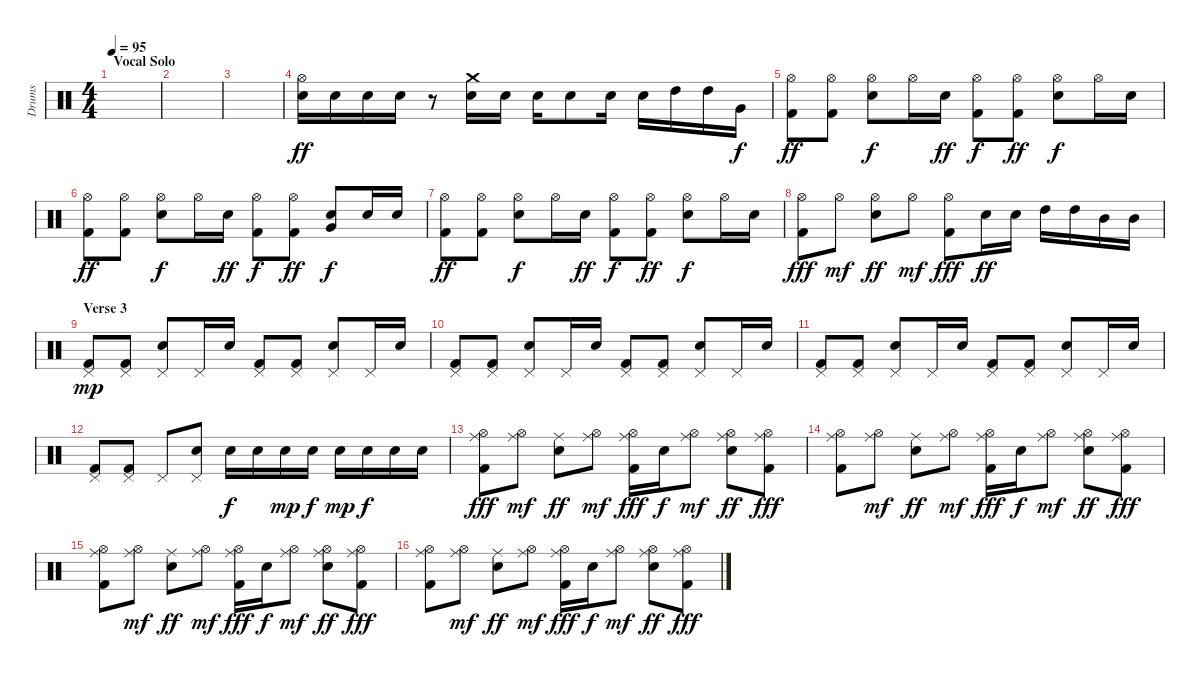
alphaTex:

\track ("Drums" "Drums") {instrument percussion}
\staff {score}
\articulation defaults
\ts (4 4)
\section ("" "Vocal Solo")
\tempo 95
\clef neutral
\ks c
|
|
|
("Hi-Hat (open)" "Electric Snare (hit)").16{dy ff} "Electric Snare (hit)".16 "Electric Snare (hit)".16 "Electric Snare (hit)".16 r.8 ("Crash medium (hit)" "Electric Snare (hit)").16 "Electric Snare (hit)".16 "Electric Snare (hit)".16 "Electric Snare (hit)".8 "Electric Snare (hit)".16 "Electric Snare (hit)".16 "High Tom (hit)".16 "High Tom (hit)".16 "Very Low Tom (hit)".16{dy f} |
("Hi-Hat (open)" "Kick (hit) 2").8{dy ff} ("Hi-Hat (open)" "Kick (hit) 2").8 ("Hi-Hat (open)" "Electric Snare (hit)").8{dy f} "Hi-Hat (open)".16 "Electric Snare (hit)".16{dy ff} ("Hi-Hat (open)" "Kick (hit) 2").8{dy f} ("Hi-Hat (open)" "Kick (hit) 2").8{dy ff} ("Hi-Hat (open)" "Electric Snare (hit)").8{dy f} "Hi-Hat (open)".16 "Electric Snare (hit)".16 |
("Hi-Hat (open)" "Kick (hit) 2").8{dy ff} ("Hi-Hat (open)" "Kick (hit) 2").8 ("Hi-Hat (open)" "Electric Snare (hit)").8{dy f} "Hi-Hat (open)".16 "Electric Snare (hit)".16{dy ff} ("Hi-Hat (open)" "Kick (hit) 2").8{dy f} ("Hi-Hat (open)" "Kick (hit) 2").8{dy ff} ("Electric Snare (hit)" "Very Low Tom (hit)").8{dy f} "Electric Snare (hit)".16 "Electric Snare (hit)".16 |
("Hi-Hat (open)" "Kick (hit) 2").8{dy ff} ("Hi-Hat (open)" "Kick (hit) 2").8 ("Hi-Hat (open)" "Electric Snare (hit)").8{dy f} "Hi-Hat (open)".16 "Electric Snare (hit)".16{dy ff} ("Hi-Hat (open)" "Kick (hit) 2").8{dy f} ("Hi-Hat (open)" "Kick (hit) 2").8{dy ff} ("Hi-Hat (open)" "Electric Snare (hit)").8{dy f} "Hi-Hat (open)".16 "Electric Snare (hit)".16 |
("Hi-Hat (open)" "Kick (hit) 2").8{dy fff} "Hi-Hat (open)".8{dy mf} ("Hi-Hat (open)" "Electric Snare (hit)").8{dy ff} "Hi-Hat (open)".8{dy mf} ("Hi-Hat (open)" "Kick (hit) 2").8{dy fff} "Electric Snare (hit)".16{dy ff} "Electric Snare (hit)".16 "High Tom (hit)".16 "High Tom (hit)".16 "Mid Tom (hit)".16 "Mid Tom (hit)".16 |
\section ("" "Verse 3")
("Pedal Hi-Hat (hit)" "Kick (hit) 2").8{dy mp} ("Pedal Hi-Hat (hit)" "Kick (hit) 2").8 ("Pedal Hi-Hat (hit)" "Electric Snare (hit)").8 "Pedal Hi-Hat (hit)".16 "Electric Snare (hit)".16 ("Pedal Hi-Hat (hit)" "Kick (hit) 2").8 ("Pedal Hi-Hat (hit)" "Kick (hit) 2").8 ("Pedal Hi-Hat (hit)" "Electric Snare (hit)").8 "Pedal Hi-Hat (hit)".16 "Electric Snare (hit)".16 |
("Pedal Hi-Hat (hit)" "Kick (hit) 2").8 ("Pedal Hi-Hat (hit)" "Kick (hit) 2").8 ("Pedal Hi-Hat (hit)" "Electric Snare (hit)").8 "Pedal Hi-Hat (hit)".16 "Electric Snare (hit)".16 ("Pedal Hi-Hat (hit)" "Kick (hit) 2").8 ("Pedal Hi-Hat (hit)" "Kick (hit) 2").8 ("Pedal Hi-Hat (hit)" "Electric Snare (hit)").8 "Pedal Hi-Hat (hit)".16 "Electric Snare (hit)".16 |
("Pedal Hi-Hat (hit)" "Kick (hit) 2").8 ("Pedal Hi-Hat (hit)" "Kick (hit) 2").8 ("Pedal Hi-Hat (hit)" "Electric Snare (hit)").8 "Pedal Hi-Hat (hit)".16 "Electric Snare (hit)".16 ("Pedal Hi-Hat (hit)" "Kick (hit) 2").8 ("Pedal Hi-Hat (hit)" "Kick (hit) 2").8 ("Pedal Hi-Hat (hit)" "Electric Snare (hit)").8 "Pedal Hi-Hat (hit)".16 "Electric Snare (hit)".16 |
("Pedal Hi-Hat (hit)" "Kick (hit) 2").8 ("Pedal Hi-Hat (hit)" "Kick (hit) 2").8 "Pedal Hi-Hat (hit)".8 ("Pedal Hi-Hat (hit)" "Electric Snare (hit)").8 "Electric Snare (hit)".16{dy f} "Electric Snare (hit)".16 "Electric Snare (hit)".16{dy mp} "Electric Snare (hit)".16{dy f} "Electric Snare (hit)".16{dy mp} "Electric Snare (hit)".16{dy f} "Electric Snare (hit)".16 "Electric Snare (hit)".16 |
("Ride (middle)" "Hi-Hat (open)" "Kick (hit) 2").8{dy fff} ("Ride (middle)" "Hi-Hat (open)").8{dy mf} ("Ride (middle)" "Electric Snare (hit)").8{dy ff} ("Ride (middle)" "Hi-Hat (open)").8{dy mf} ("Ride (middle)" "Hi-Hat (open)" "Kick (hit) 2").16{dy fff} "Snare (hit) 2".16{dy f} ("Ride (middle)" "Hi-Hat (open)").8{dy mf} ("Ride (middle)" "Hi-Hat (open)" "Electric Snare (hit)").8{dy ff} ("Ride (middle)" "Hi-Hat (open)" "Kick (hit) 2").8{dy fff} |
("Ride (middle)" "Hi-Hat (open)" "Kick (hit) 2").8 ("Ride (middle)" "Hi-Hat (open)").8{dy mf} ("Ride (middle)" "Electric Snare (hit)").8{dy ff} ("Ride (middle)" "Hi-Hat (open)").8{dy mf} ("Ride (middle)" "Hi-Hat (open)" "Kick (hit) 2").16{dy fff} "Electric Snare (hit)".16{dy f} ("Ride (middle)" "Hi-Hat (open)").8{dy mf} ("Ride (middle)" "Hi-Hat (open)" "Electric Snare (hit)").8{dy ff} ("Ride (middle)" "Hi-Hat (open)" "Kick (hit) 2").8{dy fff} |
("Ride (middle)" "Hi-Hat (open)" "Kick (hit) 2").8 ("Ride (middle)" "Hi-Hat (open)").8{dy mf} ("Ride (middle)" "Electric Snare (hit)").8{dy ff} ("Ride (middle)" "Hi-Hat (open)").8{dy mf} ("Ride (middle)" "Hi-Hat (open)" "Kick (hit) 2").16{dy fff} "Electric Snare (hit)".16{dy f} ("Ride (middle)" "Hi-Hat (open)").8{dy mf} ("Ride (middle)" "Hi-Hat (open)" "Electric Snare (hit)").8{dy ff} ("Ride (middle)" "Hi-Hat (open)" "Kick (hit) 2").8{dy fff} |
("Ride (middle)" "Hi-Hat (open)" "Kick (hit) 2").8 ("Ride (middle)" "Hi-Hat (open)").8{dy mf} ("Ride (middle)" "Electric Snare (hit)").8{dy ff} ("Ride (middle)" "Hi-Hat (open)").8{dy mf} ("Ride (middle)" "Hi-Hat (open)" "Kick (hit) 2").16{dy fff} "Electric Snare (hit)".16{dy f} ("Ride (middle)" "Hi-Hat (open)").8{dy mf} ("Ride (middle)" "Hi-Hat (open)" "Electric Snare (hit)").8{dy ff} ("Ride (middle)" "Hi-Hat (open)" "Kick (hit) 2").8{dy fff}
